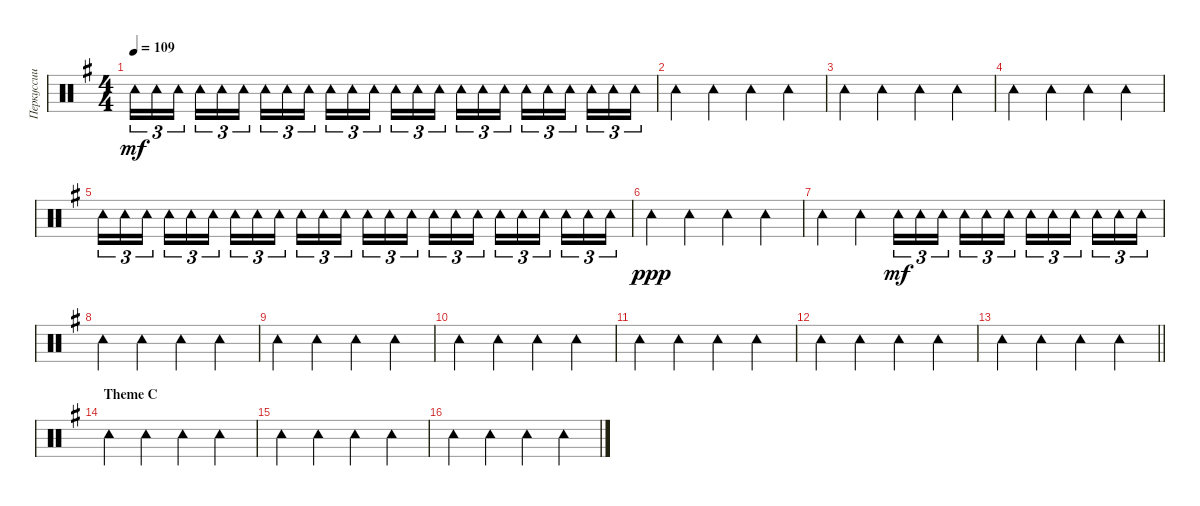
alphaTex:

\track ("Перкуссии" "Перкуссии") {instrument percussion}
\staff {score}
\articulation defaults
\ts (4 4)
\tempo 109
\clef neutral
\ks eminor "Tambourine (hit)".16{tu (3 2) dy mf volume 0} "Tambourine (hit)".16{tu (3 2) volume 14} "Tambourine (hit)".16{tu (3 2) beam splitsecondary} "Tambourine (hit)".16{tu (3 2)} "Tambourine (hit)".16{tu (3 2)} "Tambourine (hit)".16{tu (3 2)} "Tambourine (hit)".16{tu (3 2)} "Tambourine (hit)".16{tu (3 2)} "Tambourine (hit)".16{tu (3 2) beam splitsecondary} "Tambourine (hit)".16{tu (3 2)} "Tambourine (hit)".16{tu (3 2)} "Tambourine (hit)".16{tu (3 2)} "Tambourine (hit)".16{tu (3 2)} "Tambourine (hit)".16{tu (3 2)} "Tambourine (hit)".16{tu (3 2) beam splitsecondary} "Tambourine (hit)".16{tu (3 2)} "Tambourine (hit)".16{tu (3 2)} "Tambourine (hit)".16{tu (3 2)} "Tambourine (hit)".16{tu (3 2)} "Tambourine (hit)".16{tu (3 2)} "Tambourine (hit)".16{tu (3 2) beam splitsecondary} "Tambourine (hit)".16{tu (3 2)} "Tambourine (hit)".16{tu (3 2)} "Tambourine (hit)".16{tu (3 2)}
|
"Tambourine (hit)".4 "Tambourine (hit)".4 "Tambourine (hit)".4 "Tambourine (hit)".4 |
"Tambourine (hit)".4 "Tambourine (hit)".4 "Tambourine (hit)".4 "Tambourine (hit)".4 |
"Tambourine (hit)".4 "Tambourine (hit)".4 "Tambourine (hit)".4 "Tambourine (hit)".4 |
"Tambourine (hit)".16{tu (3 2) volume 0} "Tambourine (hit)".16{tu (3 2) volume 14} "Tambourine (hit)".16{tu (3 2) beam splitsecondary} "Tambourine (hit)".16{tu (3 2)} "Tambourine (hit)".16{tu (3 2)} "Tambourine (hit)".16{tu (3 2)} "Tambourine (hit)".16{tu (3 2)} "Tambourine (hit)".16{tu (3 2)} "Tambourine (hit)".16{tu (3 2) beam splitsecondary} "Tambourine (hit)".16{tu (3 2)} "Tambourine (hit)".16{tu (3 2)} "Tambourine (hit)".16{tu (3 2)} "Tambourine (hit)".16{tu (3 2)} "Tambourine (hit)".16{tu (3 2)} "Tambourine (hit)".16{tu (3 2) beam splitsecondary} "Tambourine (hit)".16{tu (3 2)} "Tambourine (hit)".16{tu (3 2)} "Tambourine (hit)".16{tu (3 2)} "Tambourine (hit)".16{tu (3 2)} "Tambourine (hit)".16{tu (3 2)} "Tambourine (hit)".16{tu (3 2) beam splitsecondary} "Tambourine (hit)".16{tu (3 2)} "Tambourine (hit)".16{tu (3 2)} "Tambourine (hit)".16{tu (3 2)} |
"Tambourine (hit)".4{dy ppp} "Tambourine (hit)".4 "Tambourine (hit)".4 "Tambourine (hit)".4 |
"Tambourine (hit)".4 "Tambourine (hit)".4 "Tambourine (hit)".16{tu (3 2) dy mf volume 0} "Tambourine (hit)".16{tu (3 2) volume 14} "Tambourine (hit)".16{tu (3 2) beam splitsecondary} "Tambourine (hit)".16{tu (3 2)} "Tambourine (hit)".16{tu (3 2)} "Tambourine (hit)".16{tu (3 2)} "Tambourine (hit)".16{tu (3 2)} "Tambourine (hit)".16{tu (3 2)} "Tambourine (hit)".16{tu (3 2) beam splitsecondary} "Tambourine (hit)".16{tu (3 2)} "Tambourine (hit)".16{tu (3 2)} "Tambourine (hit)".16{tu (3 2)} |
"Tambourine (hit)".4 "Tambourine (hit)".4 "Tambourine (hit)".4 "Tambourine (hit)".4 |
"Tambourine (hit)".4 "Tambourine (hit)".4 "Tambourine (hit)".4 "Tambourine (hit)".4 |
"Tambourine (hit)".4 "Tambourine (hit)".4 "Tambourine (hit)".4 "Tambourine (hit)".4 |
"Tambourine (hit)".4 "Tambourine (hit)".4 "Tambourine (hit)".4 "Tambourine (hit)".4 |
"Tambourine (hit)".4 "Tambourine (hit)".4 "Tambourine (hit)".4 "Tambourine (hit)".4 |
\barLineRight lightlight "Tambourine (hit)".4 "Tambourine (hit)".4 "Tambourine (hit)".4 "Tambourine (hit)".4
|
\section ("" "Theme С")
"Tambourine (hit)".4 "Tambourine (hit)".4 "Tambourine (hit)".4 "Tambourine (hit)".4 |
"Tambourine (hit)".4 "Tambourine (hit)".4 "Tambourine (hit)".4 "Tambourine (hit)".4 |
"Tambourine (hit)".4 "Tambourine (hit)".4 "Tambourine (hit)".4 "Tambourine (hit)".4
